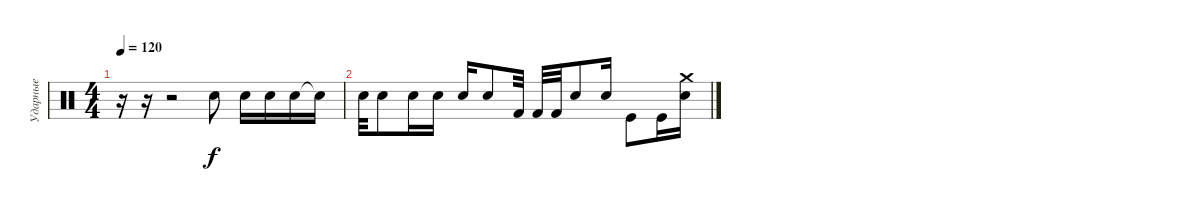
\track ("Ударные" "Ударные") {instrument percussion}
\staff {score}
\articulation defaults
\ts (4 4)
\tempo 120
\clef neutral
\ks c
r.16{dy f} r.16 r.2 "Snare (hit) 2".8 "Snare (hit) 2".16 "Snare (hit) 2".16 "Snare (hit) 2".16 "Snare (hit)"{t}.16 |
"Snare (hit) 2".32 "Snare (hit) 2".8 "Electric Snare (hit)".16 "Electric Snare (hit)".16 "Electric Snare (hit)".16 "Electric Snare (hit)".8 "Kick (hit) 2".32 "Kick (hit) 2".32 "Kick (hit) 2".32 "Snare (hit) 2".8 "Snare (hit) 2".16 "Kick (hit)".8 "Kick (hit)".16 ("Crash medium (hit)" "Snare (hit) 2").16
